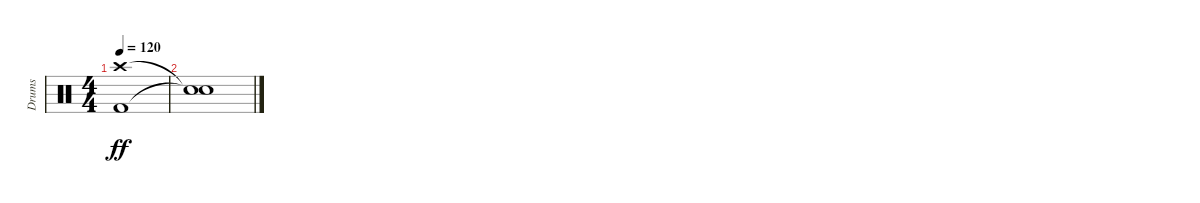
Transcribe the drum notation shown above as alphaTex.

\track ("Drums" "Drums") {instrument percussion}
\staff {score}
\articulation defaults
\ts (4 4)
\section ("" "")
\tempo 120
\clef neutral
\ks c
("Crash high (hit)" "Kick (hit) 2").1{dy ff volume 1} |
("Snare (hit)"{t} "Snare (hit)"{t}).1
